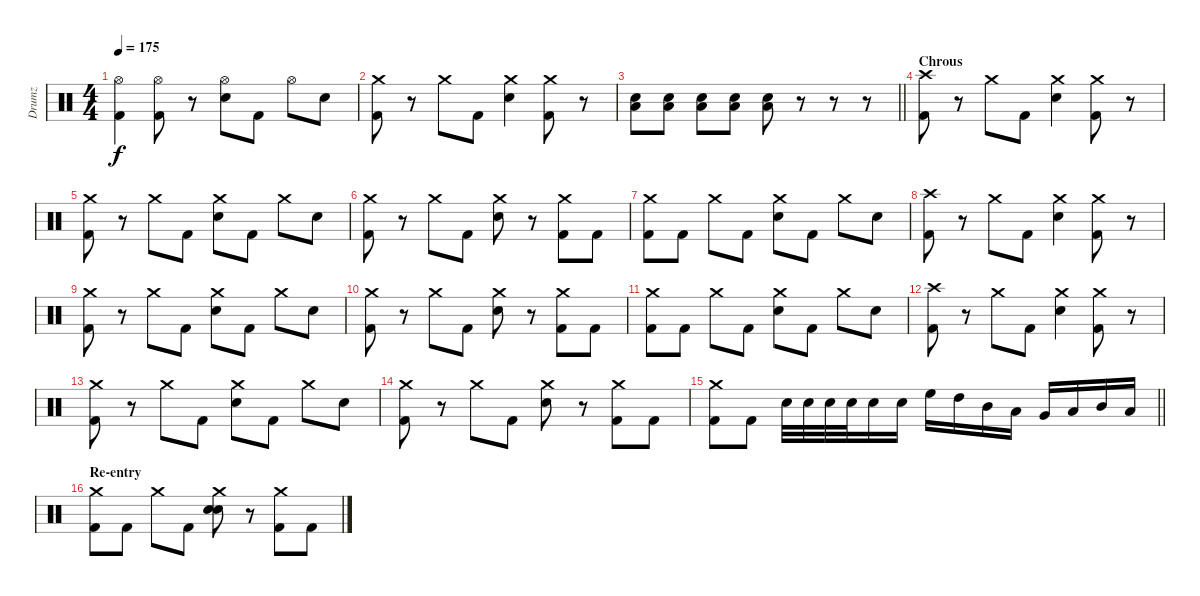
\track ("Drumz" "Drumz") {instrument percussion}
\staff {score}
\articulation defaults
\ts (4 4)
\tempo 175
\clef neutral
\ks c
("Kick (hit) 2" "Hi-Hat (open)").4{dy f} ("Kick (hit) 2" "Hi-Hat (open)").8 r.8 ("Snare (hit) 2" "Hi-Hat (open)").8 "Kick (hit) 2".8 "Hi-Hat (open)".8 "Snare (hit) 2".8 |
("Crash medium (hit)" "Kick (hit) 2").8 r.8 "Crash medium (hit)".8 "Kick (hit) 2".8 ("Crash medium (hit)" "Snare (hit) 2").4 ("Crash medium (hit)" "Kick (hit) 2").8 r.8 |
\barLineRight lightlight
("Low Floor Tom (hit)" "Snare (hit) 2").8 ("Low Floor Tom (hit)" "Snare (hit) 2").8 ("Low Floor Tom (hit)" "Snare (hit) 2").8 ("Low Floor Tom (hit)" "Snare (hit) 2").8 ("Low Floor Tom (hit)" "Snare (hit) 2").8 r.8 r.8 r.8 |
\section ("" "Chrous")
("Kick (hit) 2" "Crash high (hit)").8 r.8 "Crash medium (hit)".8 "Kick (hit) 2".8 ("Crash medium (hit)" "Snare (hit) 2").4 ("Crash medium (hit)" "Kick (hit) 2").8 r.8 |
("Crash medium (hit)" "Kick (hit) 2").8 r.8 "Crash medium (hit)".8 "Kick (hit) 2".8 ("Crash medium (hit)" "Snare (hit) 2").8 "Kick (hit) 2".8 "Crash medium (hit)".8 "Snare (hit) 2".8 |
("Crash medium (hit)" "Kick (hit) 2").8 r.8 "Crash medium (hit)".8 "Kick (hit) 2".8 ("Crash medium (hit)" "Snare (hit) 2").8 r.8 ("Crash medium (hit)" "Kick (hit) 2").8 "Kick (hit) 2".8 |
("Crash medium (hit)" "Kick (hit) 2").8 "Kick (hit) 2".8 "Crash medium (hit)".8 "Kick (hit) 2".8 ("Crash medium (hit)" "Snare (hit) 2").8 "Kick (hit) 2".8 "Crash medium (hit)".8 "Snare (hit) 2".8 |
("Kick (hit) 2" "Crash high (hit)").8 r.8 "Crash medium (hit)".8 "Kick (hit) 2".8 ("Crash medium (hit)" "Snare (hit) 2").4 ("Crash medium (hit)" "Kick (hit) 2").8 r.8 |
("Crash medium (hit)" "Kick (hit) 2").8 r.8 "Crash medium (hit)".8 "Kick (hit) 2".8 ("Crash medium (hit)" "Snare (hit) 2").8 "Kick (hit) 2".8 "Crash medium (hit)".8 "Snare (hit) 2".8 |
("Crash medium (hit)" "Kick (hit) 2").8 r.8 "Crash medium (hit)".8 "Kick (hit) 2".8 ("Crash medium (hit)" "Snare (hit) 2").8 r.8 ("Crash medium (hit)" "Kick (hit) 2").8 "Kick (hit) 2".8 |
("Crash medium (hit)" "Kick (hit) 2").8 "Kick (hit) 2".8 "Crash medium (hit)".8 "Kick (hit) 2".8 ("Crash medium (hit)" "Snare (hit) 2").8 "Kick (hit) 2".8 "Crash medium (hit)".8 "Snare (hit) 2".8 |
("Kick (hit) 2" "Crash high (hit)").8 r.8 "Crash medium (hit)".8 "Kick (hit) 2".8 ("Crash medium (hit)" "Snare (hit) 2").4 ("Crash medium (hit)" "Kick (hit) 2").8 r.8 |
("Crash medium (hit)" "Kick (hit) 2").8 r.8 "Crash medium (hit)".8 "Kick (hit) 2".8 ("Crash medium (hit)" "Snare (hit) 2").8 "Kick (hit) 2".8 "Crash medium (hit)".8 "Snare (hit) 2".8 |
("Crash medium (hit)" "Kick (hit) 2").8 r.8 "Crash medium (hit)".8 "Kick (hit) 2".8 ("Crash medium (hit)" "Snare (hit) 2").8 r.8 ("Crash medium (hit)" "Kick (hit) 2").8 "Kick (hit) 2".8 |
\barLineRight lightlight
("Crash medium (hit)" "Kick (hit) 2").8 "Kick (hit) 2".8 "Electric Snare (hit)".32 "Electric Snare (hit)".32 "Electric Snare (hit)".32 "Electric Snare (hit)".32 "Electric Snare (hit)".16 "Electric Snare (hit)".16 "High Floor Tom (hit)".16 "High Tom (hit)".16 "Mid Tom (hit)".16 "Low Tom (hit)".16 "Very Low Tom (hit)".16 "Low Floor Tom (hit)".16 "Mid Tom (hit)".16 "Low Tom (hit)".16 |
\section ("" "Re-entry")
("Crash medium (hit)" "Kick (hit) 2").8 "Kick (hit) 2".8 "Crash medium (hit)".8 "Kick (hit) 2".8 ("Crash medium (hit)" "Electric Snare (hit)" "Electric Snare (hit)").8 r.8 ("Crash medium (hit)" "Kick (hit) 2").8 "Kick (hit) 2".8
